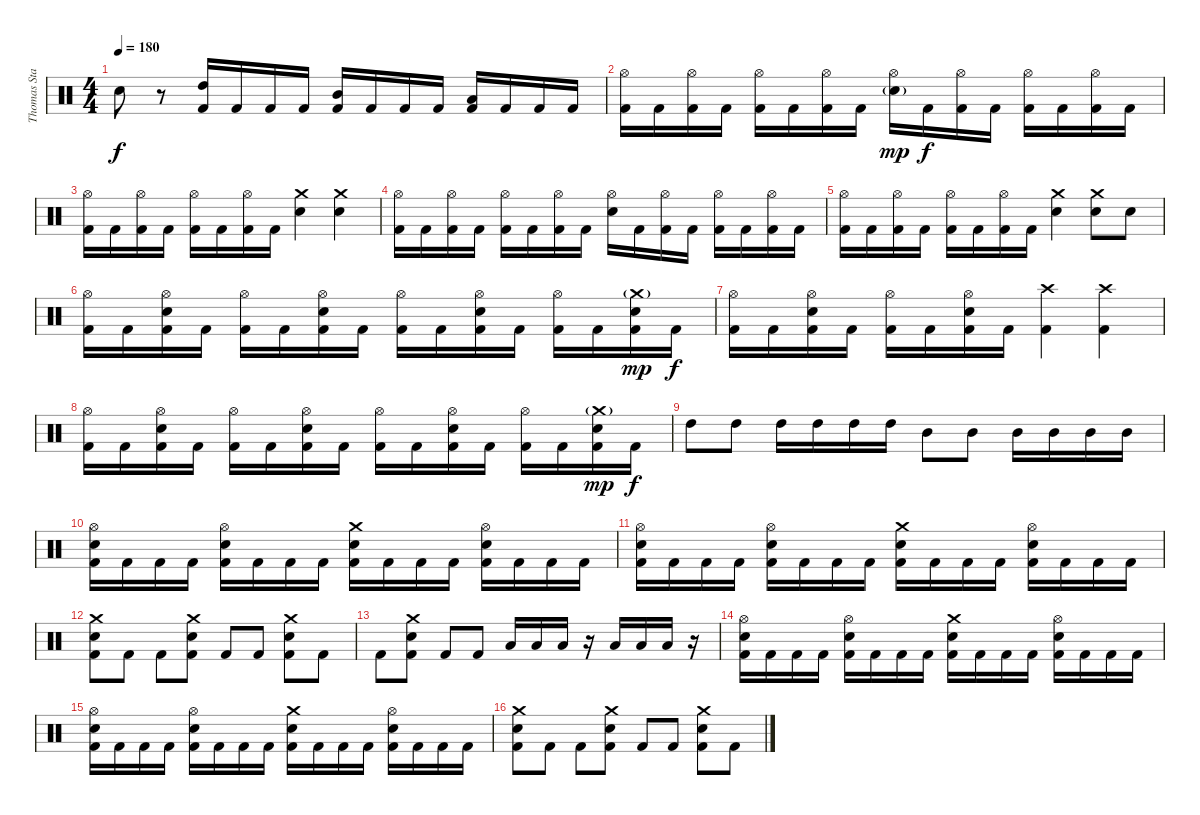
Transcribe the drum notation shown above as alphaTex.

\track ("Thomas Stauch" "Thomas Sta") {instrument percussion}
\staff {score}
\articulation defaults
\ts (4 4)
\tempo 180
\clef neutral
\ks c "Electric Snare (hit)".8{dy f}
r.8 ("High Tom (hit)" "Kick (hit) 2").16 "Kick (hit) 2".16 "Kick (hit) 2".16 "Kick (hit) 2".16 ("Mid Tom (hit)" "Kick (hit) 2").16 "Kick (hit) 2".16 "Kick (hit) 2".16 "Kick (hit) 2".16 ("Low Tom (hit)" "Kick (hit) 2").16 "Kick (hit) 2".16 "Kick (hit) 2".16 "Kick (hit) 2".16 |
("Hi-Hat (open)" "Kick (hit) 2").16 "Kick (hit) 2".16 ("Hi-Hat (open)" "Kick (hit) 2").16 "Kick (hit) 2".16 ("Hi-Hat (open)" "Kick (hit) 2").16 "Kick (hit) 2".16 ("Hi-Hat (open)" "Kick (hit) 2").16 "Kick (hit) 2".16 ("Hi-Hat (open)" "Electric Snare (hit)"{g}).16{dy mp} "Kick (hit) 2".16{dy f} ("Hi-Hat (open)" "Kick (hit) 2").16 "Kick (hit) 2".16 ("Hi-Hat (open)" "Kick (hit) 2").16 "Kick (hit) 2".16 ("Hi-Hat (open)" "Kick (hit) 2").16 "Kick (hit) 2".16 |
("Hi-Hat (open)" "Kick (hit) 2").16 "Kick (hit) 2".16 ("Hi-Hat (open)" "Kick (hit) 2").16 "Kick (hit) 2".16 ("Hi-Hat (open)" "Kick (hit) 2").16 "Kick (hit) 2".16 ("Hi-Hat (open)" "Kick (hit) 2").16 "Kick (hit) 2".16 ("Crash medium (hit)" "Electric Snare (hit)").4 ("Crash medium (hit)" "Electric Snare (hit)").4 |
("Hi-Hat (open)" "Kick (hit) 2").16 "Kick (hit) 2".16 ("Hi-Hat (open)" "Kick (hit) 2").16 "Kick (hit) 2".16 ("Hi-Hat (open)" "Kick (hit) 2").16 "Kick (hit) 2".16 ("Hi-Hat (open)" "Kick (hit) 2").16 "Kick (hit) 2".16 ("Hi-Hat (open)" "Electric Snare (hit)").16 "Kick (hit) 2".16 ("Hi-Hat (open)" "Kick (hit) 2").16 "Kick (hit) 2".16 ("Hi-Hat (open)" "Kick (hit) 2").16 "Kick (hit) 2".16 ("Hi-Hat (open)" "Kick (hit) 2").16 "Kick (hit) 2".16 |
("Hi-Hat (open)" "Kick (hit) 2").16 "Kick (hit) 2".16 ("Hi-Hat (open)" "Kick (hit) 2").16 "Kick (hit) 2".16 ("Hi-Hat (open)" "Kick (hit) 2").16 "Kick (hit) 2".16 ("Hi-Hat (open)" "Kick (hit) 2").16 "Kick (hit) 2".16 ("Crash medium (hit)" "Electric Snare (hit)").4 ("Crash medium (hit)" "Electric Snare (hit)").8 "Electric Snare (hit)".8 |
("Hi-Hat (open)" "Kick (hit) 2").16 "Kick (hit) 2".16 ("Hi-Hat (open)" "Electric Snare (hit)" "Kick (hit) 2").16 "Kick (hit) 2".16 ("Hi-Hat (open)" "Kick (hit) 2").16 "Kick (hit) 2".16 ("Hi-Hat (open)" "Electric Snare (hit)" "Kick (hit) 2").16 "Kick (hit) 2".16 ("Hi-Hat (open)" "Kick (hit) 2").16 "Kick (hit) 2".16 ("Hi-Hat (open)" "Electric Snare (hit)" "Kick (hit) 2").16 "Kick (hit) 2".16 ("Hi-Hat (open)" "Kick (hit) 2").16 "Kick (hit) 2".16 ("Crash medium (hit)"{g} "Electric Snare (hit)" "Kick (hit) 2").16{dy mp} "Kick (hit) 2".16{dy f} |
("Hi-Hat (open)" "Kick (hit) 2").16 "Kick (hit) 2".16 ("Hi-Hat (open)" "Electric Snare (hit)" "Kick (hit) 2").16 "Kick (hit) 2".16 ("Hi-Hat (open)" "Kick (hit) 2").16 "Kick (hit) 2".16 ("Hi-Hat (open)" "Electric Snare (hit)" "Kick (hit) 2").16 "Kick (hit) 2".16 ("Crash high (hit)" "Kick (hit) 2").4 ("Crash high (hit)" "Kick (hit) 2").4 |
("Hi-Hat (open)" "Kick (hit) 2").16 "Kick (hit) 2".16 ("Hi-Hat (open)" "Electric Snare (hit)" "Kick (hit) 2").16 "Kick (hit) 2".16 ("Hi-Hat (open)" "Kick (hit) 2").16 "Kick (hit) 2".16 ("Hi-Hat (open)" "Electric Snare (hit)" "Kick (hit) 2").16 "Kick (hit) 2".16 ("Hi-Hat (open)" "Kick (hit) 2").16 "Kick (hit) 2".16 ("Hi-Hat (open)" "Electric Snare (hit)" "Kick (hit) 2").16 "Kick (hit) 2".16 ("Hi-Hat (open)" "Kick (hit) 2").16 "Kick (hit) 2".16 ("Crash medium (hit)"{g} "Electric Snare (hit)" "Kick (hit) 2").16{dy mp} "Kick (hit) 2".16{dy f} |
"High Tom (hit)".8 "High Tom (hit)".8 "High Tom (hit)".16 "High Tom (hit)".16 "High Tom (hit)".16 "High Tom (hit)".16 "Mid Tom (hit)".8 "Mid Tom (hit)".8 "Mid Tom (hit)".16 "Mid Tom (hit)".16 "Mid Tom (hit)".16 "Mid Tom (hit)".16 |
("Hi-Hat (open)" "Electric Snare (hit)" "Kick (hit) 2").16 "Kick (hit) 2".16 "Kick (hit) 2".16 "Kick (hit) 2".16 ("Hi-Hat (open)" "Electric Snare (hit)" "Kick (hit) 2").16 "Kick (hit) 2".16 "Kick (hit) 2".16 "Kick (hit) 2".16 ("Crash medium (hit)" "Electric Snare (hit)" "Kick (hit) 2").16 "Kick (hit) 2".16 "Kick (hit) 2".16 "Kick (hit) 2".16 ("Hi-Hat (open)" "Electric Snare (hit)" "Kick (hit) 2").16 "Kick (hit) 2".16 "Kick (hit) 2".16 "Kick (hit) 2".16 |
("Hi-Hat (open)" "Electric Snare (hit)" "Kick (hit) 2").16 "Kick (hit) 2".16 "Kick (hit) 2".16 "Kick (hit) 2".16 ("Hi-Hat (open)" "Electric Snare (hit)" "Kick (hit) 2").16 "Kick (hit) 2".16 "Kick (hit) 2".16 "Kick (hit) 2".16 ("Crash medium (hit)" "Electric Snare (hit)" "Kick (hit) 2").16 "Kick (hit) 2".16 "Kick (hit) 2".16 "Kick (hit) 2".16 ("Hi-Hat (open)" "Electric Snare (hit)" "Kick (hit) 2").16 "Kick (hit) 2".16 "Kick (hit) 2".16 "Kick (hit) 2".16 |
("Crash medium (hit)" "Electric Snare (hit)" "Kick (hit) 2").8 "Kick (hit) 2".8 "Kick (hit) 2".8 ("Crash medium (hit)" "Electric Snare (hit)" "Kick (hit) 2").8 "Kick (hit) 2".8 "Kick (hit) 2".8 ("Crash medium (hit)" "Electric Snare (hit)" "Kick (hit) 2").8 "Kick (hit) 2".8 |
"Kick (hit) 2".8 ("Crash medium (hit)" "Electric Snare (hit)" "Kick (hit) 2").8 "Kick (hit) 2".8 "Kick (hit) 2".8 "Low Tom (hit)".16 "Low Tom (hit)".16 "Low Tom (hit)".16 r.16 "Low Tom (hit)".16 "Low Tom (hit)".16 "Low Tom (hit)".16 r.16 |
("Hi-Hat (open)" "Electric Snare (hit)" "Kick (hit) 2").16 "Kick (hit) 2".16 "Kick (hit) 2".16 "Kick (hit) 2".16 ("Hi-Hat (open)" "Electric Snare (hit)" "Kick (hit) 2").16 "Kick (hit) 2".16 "Kick (hit) 2".16 "Kick (hit) 2".16 ("Crash medium (hit)" "Electric Snare (hit)" "Kick (hit) 2").16 "Kick (hit) 2".16 "Kick (hit) 2".16 "Kick (hit) 2".16 ("Hi-Hat (open)" "Electric Snare (hit)" "Kick (hit) 2").16 "Kick (hit) 2".16 "Kick (hit) 2".16 "Kick (hit) 2".16 |
("Hi-Hat (open)" "Electric Snare (hit)" "Kick (hit) 2").16 "Kick (hit) 2".16 "Kick (hit) 2".16 "Kick (hit) 2".16 ("Hi-Hat (open)" "Electric Snare (hit)" "Kick (hit) 2").16 "Kick (hit) 2".16 "Kick (hit) 2".16 "Kick (hit) 2".16 ("Crash medium (hit)" "Electric Snare (hit)" "Kick (hit) 2").16 "Kick (hit) 2".16 "Kick (hit) 2".16 "Kick (hit) 2".16 ("Hi-Hat (open)" "Electric Snare (hit)" "Kick (hit) 2").16 "Kick (hit) 2".16 "Kick (hit) 2".16 "Kick (hit) 2".16 |
("Crash medium (hit)" "Electric Snare (hit)" "Kick (hit) 2").8 "Kick (hit) 2".8 "Kick (hit) 2".8 ("Crash medium (hit)" "Electric Snare (hit)" "Kick (hit) 2").8 "Kick (hit) 2".8 "Kick (hit) 2".8 ("Crash medium (hit)" "Electric Snare (hit)" "Kick (hit) 2").8 "Kick (hit) 2".8
